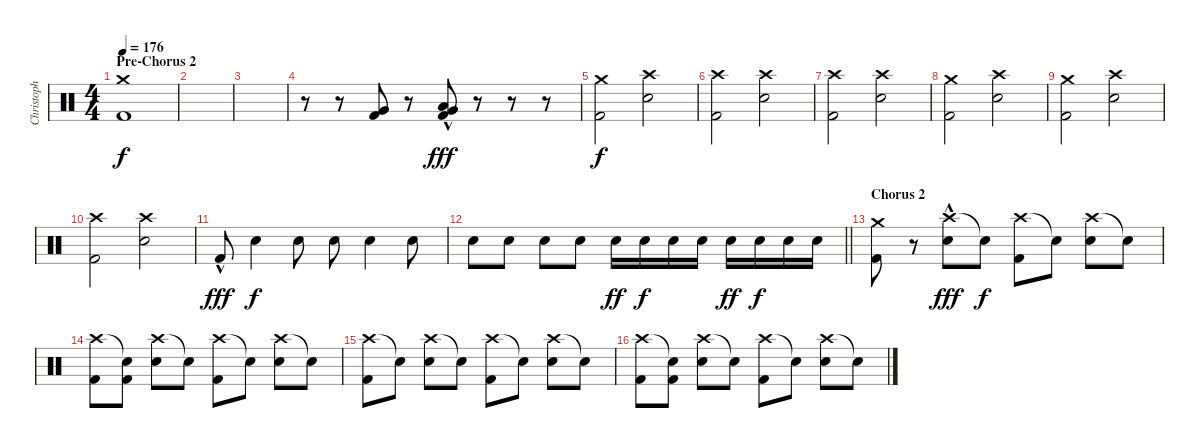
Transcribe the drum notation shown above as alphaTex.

\track ("Christoph" "Christoph") {instrument percussion}
\staff {score}
\articulation defaults
\ts (4 4)
\section ("" "Pre-Chorus 2")
\tempo 176
\clef neutral
\ks c
("Crash medium (hit)" "Kick (hit) 2").1{dy f} |
|
|
r.8 r.8 ("Very Low Tom (hit)" "Kick (hit) 2").8 r.8 ("Very Low Tom (hit)" "Low Floor Tom (hit)"{hac} "Kick (hit) 2"{hac}).8{dy fff} r.8 r.8 r.8 |
("Crash medium (hit)" "Kick (hit) 2").2{dy f} ("Crash high (hit)" "Snare (hit) 2").2 |
("Crash high (hit)" "Kick (hit) 2").2 ("Crash high (hit)" "Snare (hit) 2").2 |
("Crash high (hit)" "Kick (hit) 2").2 ("Crash high (hit)" "Snare (hit) 2").2 |
("Crash medium (hit)" "Kick (hit) 2").2 ("Crash high (hit)" "Snare (hit) 2").2 |
("Crash medium (hit)" "Kick (hit) 2").2 ("Crash high (hit)" "Snare (hit) 2").2 |
("Crash high (hit)" "Kick (hit) 2").2 ("Crash high (hit)" "Snare (hit) 2").2 |
"Kick (hit) 2"{hac}.8{dy fff} "Snare (hit) 2".4{dy f} "Snare (hit) 2".8 "Snare (hit) 2".8 "Snare (hit) 2".4 "Snare (hit) 2".8 |
\barLineRight lightlight "Snare (hit) 2".8 "Snare (hit) 2".8 "Snare (hit) 2".8 "Snare (hit) 2".8 "Snare (hit) 2".16{dy ff} "Snare (hit) 2".16{dy f} "Snare (hit) 2".16 "Snare (hit) 2".16 "Snare (hit) 2".16{dy ff} "Snare (hit) 2".16{dy f} "Snare (hit) 2".16 "Snare (hit) 2".16
|
\section ("" "Chorus 2")
("Crash medium (hit)" "Kick (hit) 2").8 r.8 ("Crash high (hit)"{hac} "Snare (hit) 2").8{dy fff} "Snare (hit)"{t}.8{dy f} ("Crash high (hit)" "Kick (hit) 2").8 "Snare (hit)"{t}.8 ("Crash high (hit)" "Snare (hit) 2").8 "Snare (hit)"{t}.8 |
("Crash high (hit)" "Kick (hit) 2").8 ("Snare (hit)"{t} "Kick (hit) 2").8 ("Crash high (hit)" "Snare (hit) 2").8 "Snare (hit)"{t}.8 ("Crash high (hit)" "Kick (hit) 2").8 "Snare (hit)"{t}.8 ("Crash high (hit)" "Snare (hit) 2").8 "Snare (hit)"{t}.8 |
("Crash high (hit)" "Kick (hit) 2").8 "Snare (hit)"{t}.8 ("Crash high (hit)" "Snare (hit) 2").8 "Snare (hit)"{t}.8 ("Crash high (hit)" "Kick (hit) 2").8 "Snare (hit)"{t}.8 ("Crash high (hit)" "Snare (hit) 2").8 "Snare (hit)"{t}.8 |
("Crash high (hit)" "Kick (hit) 2").8 ("Snare (hit)"{t} "Kick (hit) 2").8 ("Crash high (hit)" "Snare (hit) 2").8 "Snare (hit)"{t}.8 ("Crash high (hit)" "Kick (hit) 2").8 "Snare (hit)"{t}.8 ("Crash high (hit)" "Snare (hit) 2").8 "Snare (hit)"{t}.8
